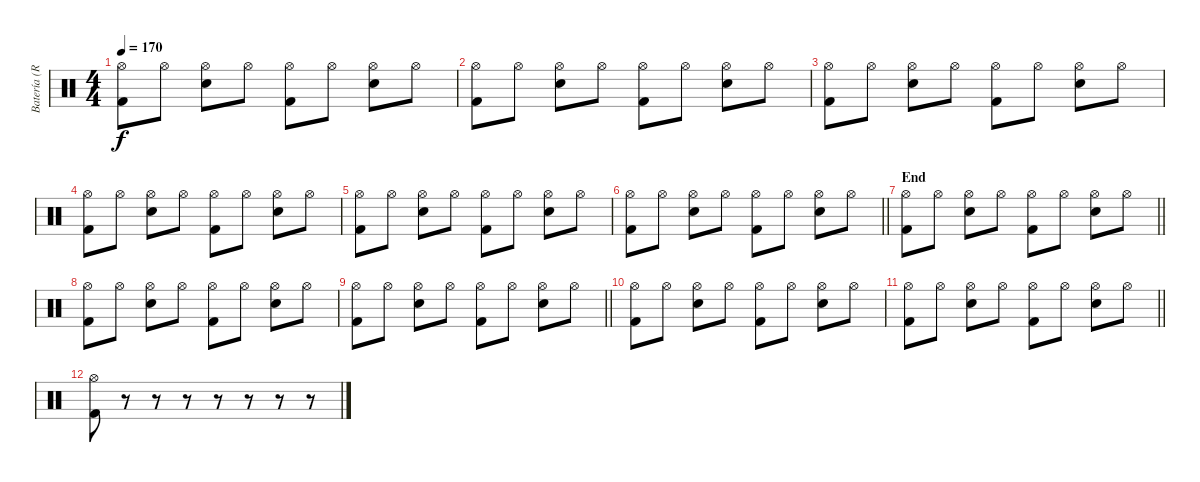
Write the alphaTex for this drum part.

\track ("Batería (Richie)" "Batería (R") {instrument percussion}
\staff {score}
\articulation defaults
\ts (4 4)
\tempo 170
\clef neutral
\ks c
("Hi-Hat (open)" "Kick (hit) 2").8{dy f} "Hi-Hat (open)".8 ("Hi-Hat (open)" "Snare (hit) 2").8 "Hi-Hat (open)".8 ("Hi-Hat (open)" "Kick (hit) 2").8 "Hi-Hat (open)".8 ("Hi-Hat (open)" "Snare (hit) 2").8 "Hi-Hat (open)".8 |
("Hi-Hat (open)" "Kick (hit) 2").8 "Hi-Hat (open)".8 ("Hi-Hat (open)" "Snare (hit) 2").8 "Hi-Hat (open)".8 ("Hi-Hat (open)" "Kick (hit) 2").8 "Hi-Hat (open)".8 ("Hi-Hat (open)" "Snare (hit) 2").8 "Hi-Hat (open)".8 |
("Hi-Hat (open)" "Kick (hit) 2").8 "Hi-Hat (open)".8 ("Hi-Hat (open)" "Snare (hit) 2").8 "Hi-Hat (open)".8 ("Hi-Hat (open)" "Kick (hit) 2").8 "Hi-Hat (open)".8 ("Hi-Hat (open)" "Snare (hit) 2").8 "Hi-Hat (open)".8 |
("Hi-Hat (open)" "Kick (hit) 2").8 "Hi-Hat (open)".8 ("Hi-Hat (open)" "Snare (hit) 2").8 "Hi-Hat (open)".8 ("Hi-Hat (open)" "Kick (hit) 2").8 "Hi-Hat (open)".8 ("Hi-Hat (open)" "Snare (hit) 2").8 "Hi-Hat (open)".8 |
("Hi-Hat (open)" "Kick (hit) 2").8 "Hi-Hat (open)".8 ("Hi-Hat (open)" "Snare (hit) 2").8 "Hi-Hat (open)".8 ("Hi-Hat (open)" "Kick (hit) 2").8 "Hi-Hat (open)".8 ("Hi-Hat (open)" "Snare (hit) 2").8 "Hi-Hat (open)".8 |
\barLineRight lightlight
("Hi-Hat (open)" "Kick (hit) 2").8 "Hi-Hat (open)".8 ("Hi-Hat (open)" "Snare (hit) 2").8 "Hi-Hat (open)".8 ("Hi-Hat (open)" "Kick (hit) 2").8 "Hi-Hat (open)".8 ("Hi-Hat (open)" "Snare (hit) 2").8 "Hi-Hat (open)".8 |
\section ("" "End")
\barLineRight lightlight
("Hi-Hat (open)" "Kick (hit) 2").8 "Hi-Hat (open)".8 ("Hi-Hat (open)" "Snare (hit) 2").8 "Hi-Hat (open)".8 ("Hi-Hat (open)" "Kick (hit) 2").8 "Hi-Hat (open)".8 ("Hi-Hat (open)" "Snare (hit) 2").8 "Hi-Hat (open)".8 |
("Hi-Hat (open)" "Kick (hit) 2").8 "Hi-Hat (open)".8 ("Hi-Hat (open)" "Snare (hit) 2").8 "Hi-Hat (open)".8 ("Hi-Hat (open)" "Kick (hit) 2").8 "Hi-Hat (open)".8 ("Hi-Hat (open)" "Snare (hit) 2").8 "Hi-Hat (open)".8 |
\barLineRight lightlight
("Hi-Hat (open)" "Kick (hit) 2").8 "Hi-Hat (open)".8 ("Hi-Hat (open)" "Snare (hit) 2").8 "Hi-Hat (open)".8 ("Hi-Hat (open)" "Kick (hit) 2").8 "Hi-Hat (open)".8 ("Hi-Hat (open)" "Snare (hit) 2").8 "Hi-Hat (open)".8 |
("Hi-Hat (open)" "Kick (hit) 2").8 "Hi-Hat (open)".8 ("Hi-Hat (open)" "Snare (hit) 2").8 "Hi-Hat (open)".8 ("Hi-Hat (open)" "Kick (hit) 2").8 "Hi-Hat (open)".8 ("Hi-Hat (open)" "Snare (hit) 2").8 "Hi-Hat (open)".8 |
\barLineRight lightlight
("Hi-Hat (open)" "Kick (hit) 2").8 "Hi-Hat (open)".8 ("Hi-Hat (open)" "Snare (hit) 2").8 "Hi-Hat (open)".8 ("Hi-Hat (open)" "Kick (hit) 2").8 "Hi-Hat (open)".8 ("Hi-Hat (open)" "Snare (hit) 2").8 "Hi-Hat (open)".8 |
("Hi-Hat (open)" "Kick (hit) 2").8 r.8 r.8 r.8 r.8 r.8 r.8 r.8
